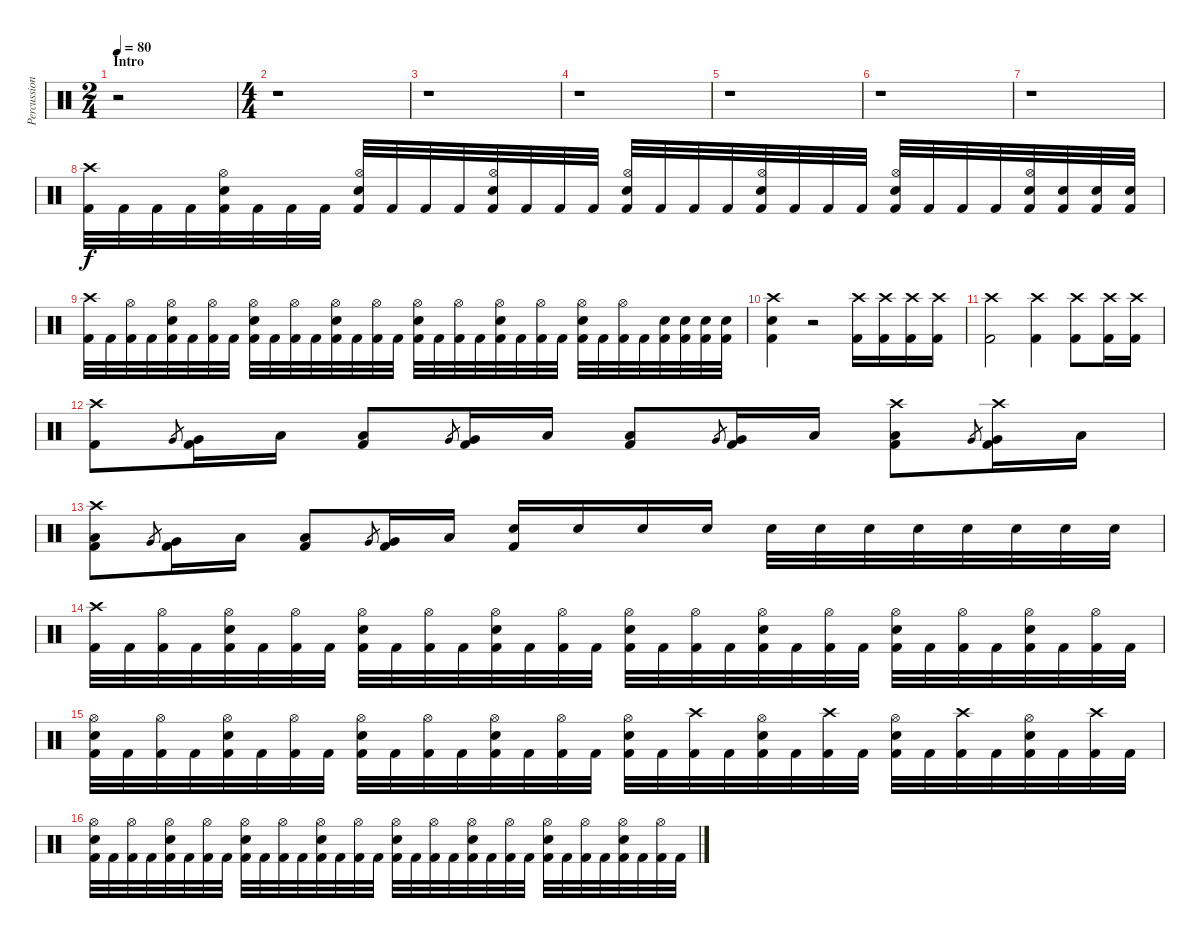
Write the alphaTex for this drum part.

\track ("Percussions" "Percussion") {instrument percussion}
\staff {score}
\articulation defaults
\ts (2 4)
\section ("" "Intro")
\tempo 80
\clef neutral
\ks c
r.2{dy f} |
\ts (4 4)
r.1 |
r.1 |
r.1 |
r.1 |
r.1 |
r.1 |
("Crash high (hit)" "Kick (hit) 2").32 "Kick (hit) 2".32 "Kick (hit) 2".32 "Kick (hit) 2".32 ("Hi-Hat (open)" "Electric Snare (hit)" "Kick (hit) 2").32 "Kick (hit) 2".32 "Kick (hit) 2".32 "Kick (hit) 2".32 ("Hi-Hat (open)" "Electric Snare (hit)" "Kick (hit) 2").32 "Kick (hit) 2".32 "Kick (hit) 2".32 "Kick (hit) 2".32 ("Hi-Hat (open)" "Electric Snare (hit)" "Kick (hit) 2").32 "Kick (hit) 2".32 "Kick (hit) 2".32 "Kick (hit) 2".32 ("Hi-Hat (open)" "Electric Snare (hit)" "Kick (hit) 2").32 "Kick (hit) 2".32 "Kick (hit) 2".32 "Kick (hit) 2".32 ("Hi-Hat (open)" "Electric Snare (hit)" "Kick (hit) 2").32 "Kick (hit) 2".32 "Kick (hit) 2".32 "Kick (hit) 2".32 ("Hi-Hat (open)" "Electric Snare (hit)" "Kick (hit) 2").32 "Kick (hit) 2".32 "Kick (hit) 2".32 "Kick (hit) 2".32 ("Hi-Hat (open)" "Electric Snare (hit)" "Kick (hit) 2").32 ("Electric Snare (hit)" "Kick (hit) 2").32 ("Electric Snare (hit)" "Kick (hit) 2").32 ("Electric Snare (hit)" "Kick (hit) 2").32 |
("Crash high (hit)" "Kick (hit) 2").32 "Kick (hit) 2".32 ("Hi-Hat (open)" "Kick (hit) 2").32 "Kick (hit) 2".32 ("Hi-Hat (open)" "Electric Snare (hit)" "Kick (hit) 2").32 "Kick (hit) 2".32 ("Hi-Hat (open)" "Kick (hit) 2").32 "Kick (hit) 2".32 ("Hi-Hat (open)" "Electric Snare (hit)" "Kick (hit) 2").32 "Kick (hit) 2".32 ("Hi-Hat (open)" "Kick (hit) 2").32 "Kick (hit) 2".32 ("Hi-Hat (open)" "Electric Snare (hit)" "Kick (hit) 2").32 "Kick (hit) 2".32 ("Hi-Hat (open)" "Kick (hit) 2").32 "Kick (hit) 2".32 ("Hi-Hat (open)" "Electric Snare (hit)" "Kick (hit) 2").32 "Kick (hit) 2".32 ("Hi-Hat (open)" "Kick (hit) 2").32 "Kick (hit) 2".32 ("Hi-Hat (open)" "Electric Snare (hit)" "Kick (hit) 2").32 "Kick (hit) 2".32 ("Hi-Hat (open)" "Kick (hit) 2").32 "Kick (hit) 2".32 ("Hi-Hat (open)" "Electric Snare (hit)" "Kick (hit) 2").32 "Kick (hit) 2".32 ("Hi-Hat (open)" "Kick (hit) 2").32 "Kick (hit) 2".32 ("Electric Snare (hit)" "Kick (hit) 2").32 ("Electric Snare (hit)" "Kick (hit) 2").32 ("Electric Snare (hit)" "Kick (hit) 2").32 ("Electric Snare (hit)" "Kick (hit) 2").32 |
("Crash high (hit)" "Electric Snare (hit)" "Kick (hit) 2").4 r.2 ("Crash high (hit)" "Kick (hit) 2").16 ("Crash high (hit)" "Kick (hit) 2").16 ("Crash high (hit)" "Kick (hit) 2").16 ("Crash high (hit)" "Kick (hit) 2").16 |
("Crash high (hit)" "Kick (hit) 2").2 ("Crash high (hit)" "Kick (hit) 2").4 ("Crash high (hit)" "Kick (hit) 2").8 ("Crash high (hit)" "Kick (hit) 2").16 ("Crash high (hit)" "Kick (hit) 2").16 |
("Crash high (hit)" "Kick (hit) 2").8 "Very Low Tom (hit)".8{gr} ("Very Low Tom (hit)" "Kick (hit) 2").16 "Low Tom (hit)".16 ("Low Floor Tom (hit)" "Kick (hit) 2").8 "Very Low Tom (hit)".8{gr} ("Very Low Tom (hit)" "Kick (hit) 2").16 "Low Tom (hit)".16 ("Low Floor Tom (hit)" "Kick (hit) 2").8 "Very Low Tom (hit)".8{gr} ("Very Low Tom (hit)" "Kick (hit) 2").16 "Low Tom (hit)".16 ("Crash high (hit)" "Low Floor Tom (hit)" "Kick (hit) 2").8 "Very Low Tom (hit)".8{gr} ("Crash high (hit)" "Very Low Tom (hit)" "Kick (hit) 2").16 "Low Tom (hit)".16 |
("Crash high (hit)" "Low Floor Tom (hit)" "Kick (hit) 2").8 "Very Low Tom (hit)".8{gr} ("Very Low Tom (hit)" "Kick (hit) 2").16 "Low Tom (hit)".16 ("Low Floor Tom (hit)" "Kick (hit) 2").8 "Very Low Tom (hit)".8{gr} ("Very Low Tom (hit)" "Kick (hit) 2").16 "Low Tom (hit)".16 ("Electric Snare (hit)" "Kick (hit) 2").16 "Electric Snare (hit)".16 "Electric Snare (hit)".16 "Electric Snare (hit)".16 "Electric Snare (hit)".32 "Electric Snare (hit)".32 "Electric Snare (hit)".32 "Electric Snare (hit)".32 "Electric Snare (hit)".32 "Electric Snare (hit)".32 "Electric Snare (hit)".32 "Electric Snare (hit)".32 |
("Crash high (hit)" "Kick (hit) 2").32 "Kick (hit) 2".32 ("Hi-Hat (open)" "Kick (hit) 2").32 "Kick (hit) 2".32 ("Hi-Hat (open)" "Electric Snare (hit)" "Kick (hit) 2").32 "Kick (hit) 2".32 ("Hi-Hat (open)" "Kick (hit) 2").32 "Kick (hit) 2".32 ("Hi-Hat (open)" "Electric Snare (hit)" "Kick (hit) 2").32 "Kick (hit) 2".32 ("Hi-Hat (open)" "Kick (hit) 2").32 "Kick (hit) 2".32 ("Hi-Hat (open)" "Electric Snare (hit)" "Kick (hit) 2").32 "Kick (hit) 2".32 ("Hi-Hat (open)" "Kick (hit) 2").32 "Kick (hit) 2".32 ("Hi-Hat (open)" "Electric Snare (hit)" "Kick (hit) 2").32 "Kick (hit) 2".32 ("Hi-Hat (open)" "Kick (hit) 2").32 "Kick (hit) 2".32 ("Hi-Hat (open)" "Electric Snare (hit)" "Kick (hit) 2").32 "Kick (hit) 2".32 ("Hi-Hat (open)" "Kick (hit) 2").32 "Kick (hit) 2".32 ("Hi-Hat (open)" "Electric Snare (hit)" "Kick (hit) 2").32 "Kick (hit) 2".32 ("Hi-Hat (open)" "Kick (hit) 2").32 "Kick (hit) 2".32 ("Hi-Hat (open)" "Electric Snare (hit)" "Kick (hit) 2").32 "Kick (hit) 2".32 ("Hi-Hat (open)" "Kick (hit) 2").32 "Kick (hit) 2".32 |
("Hi-Hat (open)" "Electric Snare (hit)" "Kick (hit) 2").32 "Kick (hit) 2".32 ("Hi-Hat (open)" "Kick (hit) 2").32 "Kick (hit) 2".32 ("Hi-Hat (open)" "Electric Snare (hit)" "Kick (hit) 2").32 "Kick (hit) 2".32 ("Hi-Hat (open)" "Kick (hit) 2").32 "Kick (hit) 2".32 ("Hi-Hat (open)" "Electric Snare (hit)" "Kick (hit) 2").32 "Kick (hit) 2".32 ("Hi-Hat (open)" "Kick (hit) 2").32 "Kick (hit) 2".32 ("Hi-Hat (open)" "Electric Snare (hit)" "Kick (hit) 2").32 "Kick (hit) 2".32 ("Hi-Hat (open)" "Kick (hit) 2").32 "Kick (hit) 2".32 ("Hi-Hat (open)" "Electric Snare (hit)" "Kick (hit) 2").32 "Kick (hit) 2".32 ("Crash high (hit)" "Kick (hit) 2").32 "Kick (hit) 2".32 ("Hi-Hat (open)" "Electric Snare (hit)" "Kick (hit) 2").32 "Kick (hit) 2".32 ("Crash high (hit)" "Kick (hit) 2").32 "Kick (hit) 2".32 ("Hi-Hat (open)" "Electric Snare (hit)" "Kick (hit) 2").32 "Kick (hit) 2".32 ("Crash high (hit)" "Kick (hit) 2").32 "Kick (hit) 2".32 ("Hi-Hat (open)" "Electric Snare (hit)" "Kick (hit) 2").32 "Kick (hit) 2".32 ("Crash high (hit)" "Kick (hit) 2").32 "Kick (hit) 2".32 |
("Hi-Hat (open)" "Electric Snare (hit)" "Kick (hit) 2").32 "Kick (hit) 2".32 ("Hi-Hat (open)" "Kick (hit) 2").32 "Kick (hit) 2".32 ("Hi-Hat (open)" "Electric Snare (hit)" "Kick (hit) 2").32 "Kick (hit) 2".32 ("Hi-Hat (open)" "Kick (hit) 2").32 "Kick (hit) 2".32 ("Hi-Hat (open)" "Electric Snare (hit)" "Kick (hit) 2").32 "Kick (hit) 2".32 ("Hi-Hat (open)" "Kick (hit) 2").32 "Kick (hit) 2".32 ("Hi-Hat (open)" "Electric Snare (hit)" "Kick (hit) 2").32 "Kick (hit) 2".32 ("Hi-Hat (open)" "Kick (hit) 2").32 "Kick (hit) 2".32 ("Hi-Hat (open)" "Electric Snare (hit)" "Kick (hit) 2").32 "Kick (hit) 2".32 ("Hi-Hat (open)" "Kick (hit) 2").32 "Kick (hit) 2".32 ("Hi-Hat (open)" "Electric Snare (hit)" "Kick (hit) 2").32 "Kick (hit) 2".32 ("Hi-Hat (open)" "Kick (hit) 2").32 "Kick (hit) 2".32 ("Hi-Hat (open)" "Electric Snare (hit)" "Kick (hit) 2").32 "Kick (hit) 2".32 ("Hi-Hat (open)" "Kick (hit) 2").32 "Kick (hit) 2".32 ("Hi-Hat (open)" "Electric Snare (hit)" "Kick (hit) 2").32 "Kick (hit) 2".32 ("Hi-Hat (open)" "Kick (hit) 2").32 "Kick (hit) 2".32
